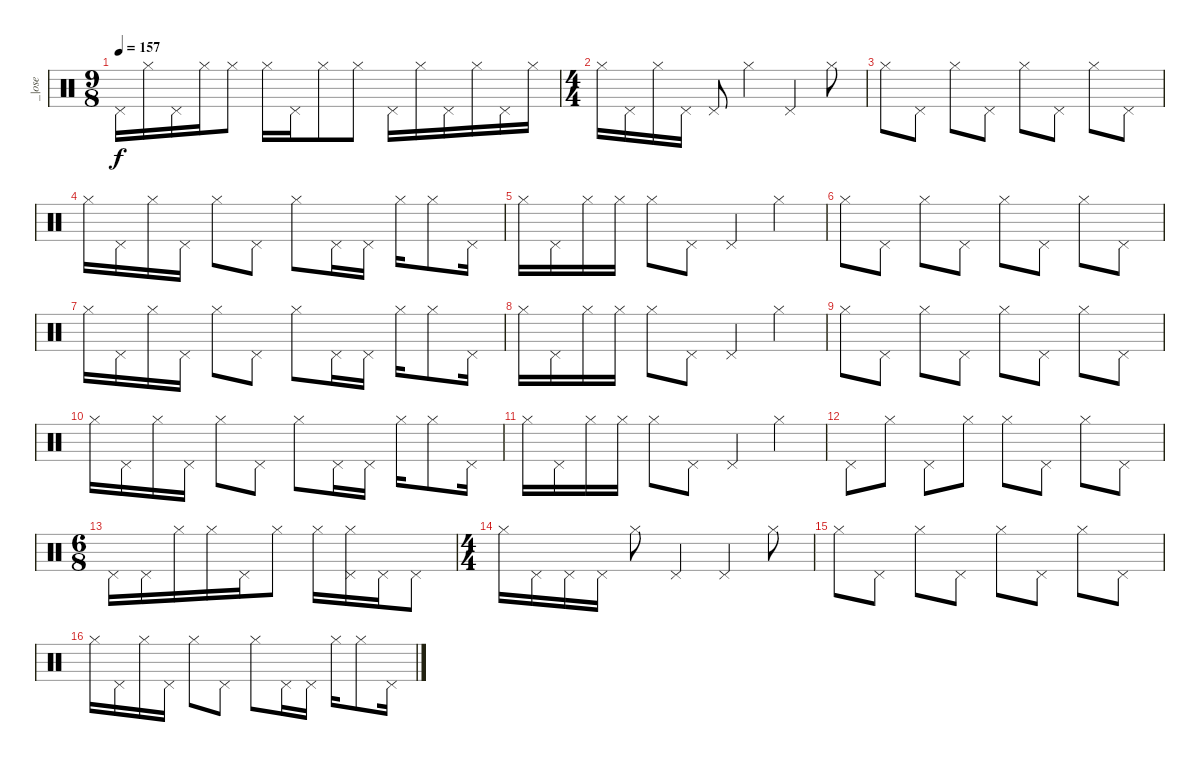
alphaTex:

\track ("_|ose" "_|ose") {instrument percussion}
\staff {score}
\articulation defaults
\ts (9 8)
\tempo 157
\clef neutral
\ks c "Pedal Hi-Hat (hit)".16{dy f} "Hi-Hat (closed)".16 "Pedal Hi-Hat (hit)".16 "Hi-Hat (closed)".16 "Hi-Hat (closed)".8 "Hi-Hat (closed)".16 "Pedal Hi-Hat (hit)".16 "Hi-Hat (closed)".8 "Hi-Hat (closed)".8 "Pedal Hi-Hat (hit)".16 "Hi-Hat (closed)".16 "Pedal Hi-Hat (hit)".16 "Hi-Hat (closed)".16 "Pedal Hi-Hat (hit)".16 "Hi-Hat (closed)".16
|
\ts (4 4)
"Hi-Hat (closed)".16 "Pedal Hi-Hat (hit)".16 "Hi-Hat (closed)".16 "Pedal Hi-Hat (hit)".16 "Pedal Hi-Hat (hit)".8 "Hi-Hat (closed)".4 "Pedal Hi-Hat (hit)".4 "Hi-Hat (closed)".8 |
"Hi-Hat (closed)".8 "Pedal Hi-Hat (hit)".8 "Hi-Hat (closed)".8 "Pedal Hi-Hat (hit)".8 "Hi-Hat (closed)".8 "Pedal Hi-Hat (hit)".8 "Hi-Hat (closed)".8 "Pedal Hi-Hat (hit)".8 |
"Hi-Hat (closed)".16 "Pedal Hi-Hat (hit)".16 "Hi-Hat (closed)".16 "Pedal Hi-Hat (hit)".16 "Hi-Hat (closed)".8 "Pedal Hi-Hat (hit)".8 "Hi-Hat (closed)".8 "Pedal Hi-Hat (hit)".16 "Pedal Hi-Hat (hit)".16 "Hi-Hat (closed)".16 "Hi-Hat (closed)".8 "Pedal Hi-Hat (hit)".16 |
"Hi-Hat (closed)".16 "Pedal Hi-Hat (hit)".16 "Hi-Hat (closed)".16 "Hi-Hat (closed)".16 "Hi-Hat (closed)".8 "Pedal Hi-Hat (hit)".8 "Pedal Hi-Hat (hit)".4 "Hi-Hat (closed)".4 |
"Hi-Hat (closed)".8 "Pedal Hi-Hat (hit)".8 "Hi-Hat (closed)".8 "Pedal Hi-Hat (hit)".8 "Hi-Hat (closed)".8 "Pedal Hi-Hat (hit)".8 "Hi-Hat (closed)".8 "Pedal Hi-Hat (hit)".8 |
"Hi-Hat (closed)".16 "Pedal Hi-Hat (hit)".16 "Hi-Hat (closed)".16 "Pedal Hi-Hat (hit)".16 "Hi-Hat (closed)".8 "Pedal Hi-Hat (hit)".8 "Hi-Hat (closed)".8 "Pedal Hi-Hat (hit)".16 "Pedal Hi-Hat (hit)".16 "Hi-Hat (closed)".16 "Hi-Hat (closed)".8 "Pedal Hi-Hat (hit)".16 |
"Hi-Hat (closed)".16 "Pedal Hi-Hat (hit)".16 "Hi-Hat (closed)".16 "Hi-Hat (closed)".16 "Hi-Hat (closed)".8 "Pedal Hi-Hat (hit)".8 "Pedal Hi-Hat (hit)".4 "Hi-Hat (closed)".4 |
"Hi-Hat (closed)".8 "Pedal Hi-Hat (hit)".8 "Hi-Hat (closed)".8 "Pedal Hi-Hat (hit)".8 "Hi-Hat (closed)".8 "Pedal Hi-Hat (hit)".8 "Hi-Hat (closed)".8 "Pedal Hi-Hat (hit)".8 |
"Hi-Hat (closed)".16 "Pedal Hi-Hat (hit)".16 "Hi-Hat (closed)".16 "Pedal Hi-Hat (hit)".16 "Hi-Hat (closed)".8 "Pedal Hi-Hat (hit)".8 "Hi-Hat (closed)".8 "Pedal Hi-Hat (hit)".16 "Pedal Hi-Hat (hit)".16 "Hi-Hat (closed)".16 "Hi-Hat (closed)".8 "Pedal Hi-Hat (hit)".16 |
"Hi-Hat (closed)".16 "Pedal Hi-Hat (hit)".16 "Hi-Hat (closed)".16 "Hi-Hat (closed)".16 "Hi-Hat (closed)".8 "Pedal Hi-Hat (hit)".8 "Pedal Hi-Hat (hit)".4 "Hi-Hat (closed)".4 |
"Pedal Hi-Hat (hit)".8 "Hi-Hat (closed)".8 "Pedal Hi-Hat (hit)".8 "Hi-Hat (closed)".8 "Hi-Hat (closed)".8 "Pedal Hi-Hat (hit)".8 "Hi-Hat (closed)".8 "Pedal Hi-Hat (hit)".8 |
\ts (6 8)
"Pedal Hi-Hat (hit)".16 "Pedal Hi-Hat (hit)".16 "Hi-Hat (closed)".16 "Hi-Hat (closed)".16 "Pedal Hi-Hat (hit)".16 "Hi-Hat (closed)".8 "Hi-Hat (closed)".16 ("Pedal Hi-Hat (hit)" "Hi-Hat (closed)").16 "Pedal Hi-Hat (hit)".16 "Pedal Hi-Hat (hit)".8 |
\ts (4 4)
"Hi-Hat (closed)".16 "Pedal Hi-Hat (hit)".16 "Pedal Hi-Hat (hit)".16 "Pedal Hi-Hat (hit)".16 "Hi-Hat (closed)".8 "Pedal Hi-Hat (hit)".4 "Pedal Hi-Hat (hit)".4 "Hi-Hat (closed)".8 |
"Hi-Hat (closed)".8 "Pedal Hi-Hat (hit)".8 "Hi-Hat (closed)".8 "Pedal Hi-Hat (hit)".8 "Hi-Hat (closed)".8 "Pedal Hi-Hat (hit)".8 "Hi-Hat (closed)".8 "Pedal Hi-Hat (hit)".8 |
"Hi-Hat (closed)".16 "Pedal Hi-Hat (hit)".16 "Hi-Hat (closed)".16 "Pedal Hi-Hat (hit)".16 "Hi-Hat (closed)".8 "Pedal Hi-Hat (hit)".8 "Hi-Hat (closed)".8 "Pedal Hi-Hat (hit)".16 "Pedal Hi-Hat (hit)".16 "Hi-Hat (closed)".16 "Hi-Hat (closed)".8 "Pedal Hi-Hat (hit)".16
